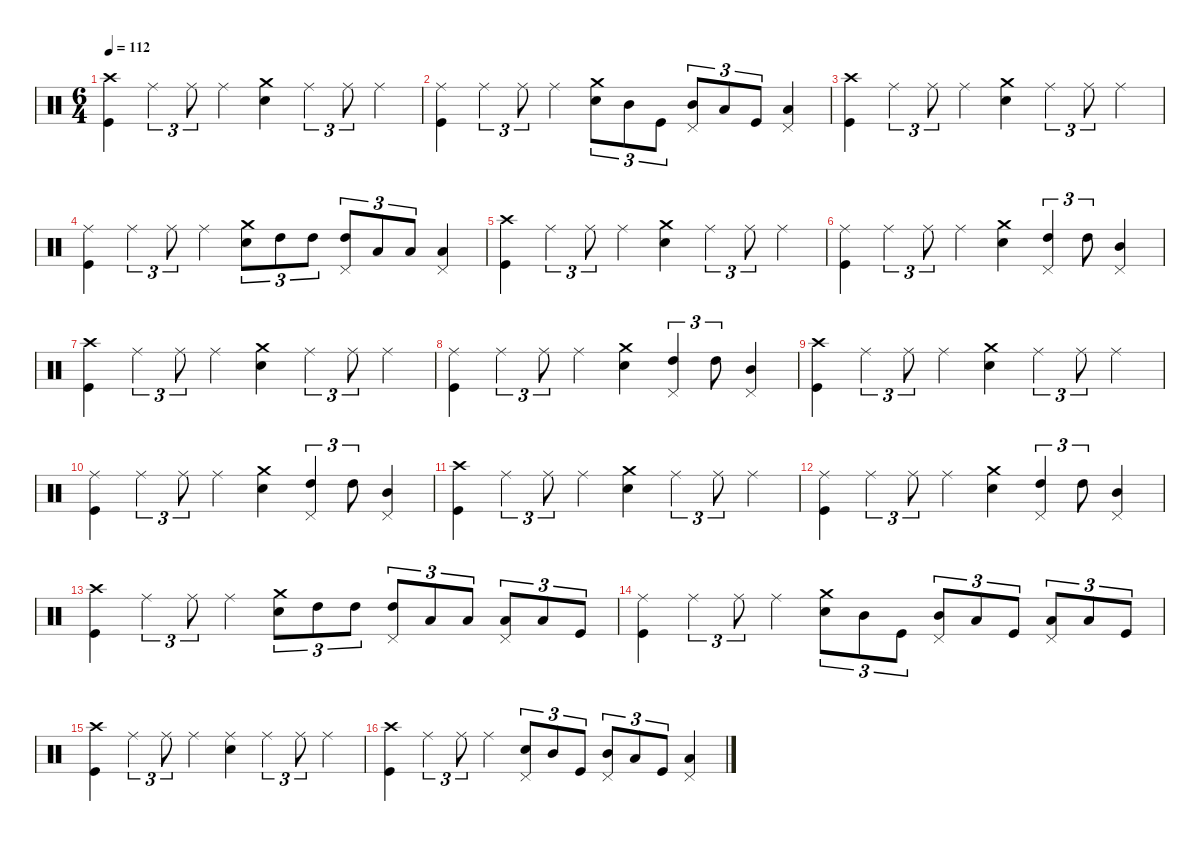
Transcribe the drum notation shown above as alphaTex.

\defaultSystemsLayout 4
\hideDynamics
\bracketExtendMode nobrackets
\singleTrackTrackNamePolicy hidden
\multiTrackTrackNamePolicy hidden
\firstSystemTrackNameMode fullname
\firstSystemTrackNameOrientation horizontal
\otherSystemsTrackNameOrientation horizontal
\track ("Drums" "drm.") {instrument percussion}
\staff {score}
\articulation defaults
\ts (6 4)
\tempo 112
\clef neutral
\ks c
("Crash high (hit)" "Kick (hit)").4{dy f beam Down} "Ride (middle)".4{tu (3 2) beam Down} "Ride (middle)".8{tu (3 2) dy mp beam Down} "Ride (middle)".4{dy f beam Down} ("Crash medium (hit)" "Snare (hit) 2").4{beam Down} "Ride (middle)".4{tu (3 2) beam Down} "Ride (middle)".8{tu (3 2) dy mp beam Down} "Ride (middle)".4{dy f beam Down} |
("Ride (middle)" "Kick (hit)").4{beam Down} "Ride (middle)".4{tu (3 2) beam Down} "Ride (middle)".8{tu (3 2) dy mp beam Down} "Ride (middle)".4{dy f beam Down} ("Crash medium (hit)" "Snare (hit) 2").8{tu (3 2) beam Down} "Mid Tom (hit)".8{tu (3 2) beam Down} "Kick (hit)".8{tu (3 2) beam Down} ("Pedal Hi-Hat (hit)" "Mid Tom (hit)").8{tu (3 2) dy p beam Up} "Low Tom (hit)".8{tu (3 2) dy f beam Up} "Kick (hit)".8{tu (3 2) beam Up} ("Pedal Hi-Hat (hit)" "Low Tom (hit)").4{dy p beam Up} |
("Crash high (hit)" "Kick (hit)").4{dy f beam Down} "Ride (middle)".4{tu (3 2) beam Down} "Ride (middle)".8{tu (3 2) dy mp beam Down} "Ride (middle)".4{dy f beam Down} ("Crash medium (hit)" "Snare (hit) 2").4{beam Down} "Ride (middle)".4{tu (3 2) beam Down} "Ride (middle)".8{tu (3 2) dy mp beam Down} "Ride (middle)".4{dy f beam Down} |
("Ride (middle)" "Kick (hit)").4{beam Down} "Ride (middle)".4{tu (3 2) beam Down} "Ride (middle)".8{tu (3 2) dy mp beam Down} "Ride (middle)".4{dy f beam Down} ("Crash medium (hit)" "Snare (hit) 2").8{tu (3 2) beam Down} "High Tom (hit)".8{tu (3 2) dy mp beam Down} "High Tom (hit)".8{tu (3 2) dy f beam Down} ("Pedal Hi-Hat (hit)" "High Tom (hit)").8{tu (3 2) dy p beam Up} "Low Tom (hit)".8{tu (3 2) dy mf beam Up} "Low Tom (hit)".8{tu (3 2) dy f beam Up} ("Pedal Hi-Hat (hit)" "Low Tom (hit)").4{dy p beam Up} |
("Crash high (hit)" "Kick (hit)").4{dy f beam Down} "Ride (middle)".4{tu (3 2) beam Down} "Ride (middle)".8{tu (3 2) dy mp beam Down} "Ride (middle)".4{dy f beam Down} ("Crash medium (hit)" "Snare (hit) 2").4{beam Down} "Ride (middle)".4{tu (3 2) beam Down} "Ride (middle)".8{tu (3 2) dy mp beam Down} "Ride (middle)".4{dy f beam Down} |
("Ride (middle)" "Kick (hit)").4{beam Down} "Ride (middle)".4{tu (3 2) beam Down} "Ride (middle)".8{tu (3 2) dy mp beam Down} "Ride (middle)".4{dy f beam Down} ("Crash medium (hit)" "Snare (hit) 2").4{beam Down} ("Pedal Hi-Hat (hit)" "High Tom (hit)").4{tu (3 2) dy p beam Up} "High Tom (hit)".8{tu (3 2) dy mf beam Down} ("Pedal Hi-Hat (hit)" "Mid Tom (hit)").4{dy p beam Up} |
("Crash high (hit)" "Kick (hit)").4{dy f beam Down} "Ride (middle)".4{tu (3 2) beam Down} "Ride (middle)".8{tu (3 2) dy mp beam Down} "Ride (middle)".4{dy f beam Down} ("Crash medium (hit)" "Snare (hit) 2").4{beam Down} "Ride (middle)".4{tu (3 2) beam Down} "Ride (middle)".8{tu (3 2) dy mp beam Down} "Ride (middle)".4{dy f beam Down} |
("Ride (middle)" "Kick (hit)").4{beam Down} "Ride (middle)".4{tu (3 2) beam Down} "Ride (middle)".8{tu (3 2) dy mp beam Down} "Ride (middle)".4{dy f beam Down} ("Crash medium (hit)" "Snare (hit) 2").4{beam Down} ("Pedal Hi-Hat (hit)" "High Tom (hit)").4{tu (3 2) dy p beam Up} "High Tom (hit)".8{tu (3 2) dy mf beam Down} ("Pedal Hi-Hat (hit)" "Mid Tom (hit)").4{dy p beam Up} |
("Crash high (hit)" "Kick (hit)").4{dy f beam Down} "Ride (middle)".4{tu (3 2) beam Down} "Ride (middle)".8{tu (3 2) dy mp beam Down} "Ride (middle)".4{dy f beam Down} ("Crash medium (hit)" "Snare (hit) 2").4{beam Down} "Ride (middle)".4{tu (3 2) beam Down} "Ride (middle)".8{tu (3 2) dy mp beam Down} "Ride (middle)".4{dy f beam Down} |
("Ride (middle)" "Kick (hit)").4{beam Down} "Ride (middle)".4{tu (3 2) beam Down} "Ride (middle)".8{tu (3 2) dy mp beam Down} "Ride (middle)".4{dy f beam Down} ("Crash medium (hit)" "Snare (hit) 2").4{beam Down} ("Pedal Hi-Hat (hit)" "High Tom (hit)").4{tu (3 2) dy p beam Up} "High Tom (hit)".8{tu (3 2) dy mf beam Down} ("Pedal Hi-Hat (hit)" "Mid Tom (hit)").4{dy p beam Up} |
("Crash high (hit)" "Kick (hit)").4{dy f beam Down} "Ride (middle)".4{tu (3 2) beam Down} "Ride (middle)".8{tu (3 2) dy mp beam Down} "Ride (middle)".4{dy f beam Down} ("Crash medium (hit)" "Snare (hit) 2").4{beam Down} "Ride (middle)".4{tu (3 2) beam Down} "Ride (middle)".8{tu (3 2) dy mp beam Down} "Ride (middle)".4{dy f beam Down} |
("Ride (middle)" "Kick (hit)").4{beam Down} "Ride (middle)".4{tu (3 2) beam Down} "Ride (middle)".8{tu (3 2) dy mp beam Down} "Ride (middle)".4{dy f beam Down} ("Crash medium (hit)" "Snare (hit) 2").4{beam Down} ("Pedal Hi-Hat (hit)" "High Tom (hit)").4{tu (3 2) dy p beam Up} "High Tom (hit)".8{tu (3 2) dy mf beam Down} ("Pedal Hi-Hat (hit)" "Mid Tom (hit)").4{dy p beam Up} |
("Crash high (hit)" "Kick (hit)").4{dy f beam Down} "Ride (middle)".4{tu (3 2) beam Down} "Ride (middle)".8{tu (3 2) dy mp beam Down} "Ride (middle)".4{dy f beam Down} ("Crash medium (hit)" "Snare (hit) 2").8{tu (3 2) beam Down} "High Tom (hit)".8{tu (3 2) dy mp beam Down} "High Tom (hit)".8{tu (3 2) dy f beam Down} ("Pedal Hi-Hat (hit)" "High Tom (hit)").8{tu (3 2) dy p beam Up} "Low Tom (hit)".8{tu (3 2) dy mf beam Up} "Low Tom (hit)".8{tu (3 2) dy f beam Up} ("Pedal Hi-Hat (hit)" "Low Tom (hit)").8{tu (3 2) dy p beam Up} "Low Tom (hit)".8{tu (3 2) dy mp beam Up} "Kick (hit)".8{tu (3 2) dy mf beam Up} |
("Ride (middle)" "Kick (hit)").4{dy f beam Down} "Ride (middle)".4{tu (3 2) beam Down} "Ride (middle)".8{tu (3 2) dy mp beam Down} "Ride (middle)".4{dy f beam Down} ("Crash medium (hit)" "Snare (hit) 2").8{tu (3 2) beam Down} "Mid Tom (hit)".8{tu (3 2) beam Down} "Kick (hit)".8{tu (3 2) beam Down} ("Pedal Hi-Hat (hit)" "Mid Tom (hit)").8{tu (3 2) dy p beam Up} "Low Tom (hit)".8{tu (3 2) dy f beam Up} "Kick (hit)".8{tu (3 2) beam Up} ("Pedal Hi-Hat (hit)" "Low Tom (hit)").8{tu (3 2) dy p beam Up} "Low Tom (hit)".8{tu (3 2) dy mp beam Up} "Kick (hit)".8{tu (3 2) dy mf beam Up} |
("Crash high (hit)" "Kick (hit)").4{dy f beam Down} "Ride (middle)".4{tu (3 2) beam Down} "Ride (middle)".8{tu (3 2) dy mp beam Down} "Ride (middle)".4{dy f beam Down} ("Ride (middle)" "Snare (hit) 2").4{beam Down} "Ride (middle)".4{tu (3 2) beam Down} "Ride (middle)".8{tu (3 2) dy mp beam Down} "Ride (middle)".4{dy f beam Down} |
("Crash high (hit)" "Kick (hit)").4{beam Down} "Ride (middle)".4{tu (3 2) beam Down} "Ride (middle)".8{tu (3 2) dy mp beam Down} "Ride (middle)".4{dy f beam Down} ("Pedal Hi-Hat (hit)" "Snare (hit) 2").8{tu (3 2) dy p beam Up} "Mid Tom (hit)".8{tu (3 2) dy f beam Up} "Kick (hit)".8{tu (3 2) beam Up} ("Pedal Hi-Hat (hit)" "Mid Tom (hit)").8{tu (3 2) dy p beam Up} "Low Tom (hit)".8{tu (3 2) dy f beam Up} "Kick (hit)".8{tu (3 2) beam Up} ("Pedal Hi-Hat (hit)" "Low Tom (hit)").4{dy p beam Up}
